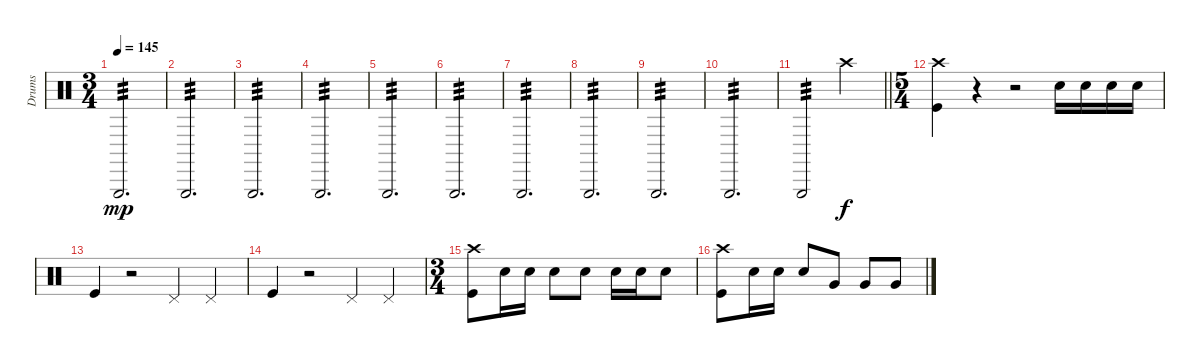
\track ("Drums" "Drums") {instrument percussion}
\staff {score}
\articulation defaults
\ts (3 4)
\tempo 145
\clef neutral
\ks aminor "Triangle (hit)".2{d tp 3 dy mp}
|
"Triangle (hit)".2{d tp 3} |
"Triangle (hit)".2{d tp 3} |
"Triangle (hit)".2{d tp 3} |
"Triangle (hit)".2{d tp 3} |
"Triangle (hit)".2{d tp 3} |
"Triangle (hit)".2{d tp 3} |
"Triangle (hit)".2{d tp 3} |
"Triangle (hit)".2{d tp 3} |
"Triangle (hit)".2{d tp 3} |
\barLineRight lightlight "Triangle (hit)".2{tp 3} "Crash high (hit)".4{dy f}
|
\ts (5 4)
("Crash high (hit)" "Kick (hit)").4 r.4 r.2 "Snare (hit) 2".16 "Snare (hit) 2".16 "Snare (hit) 2".16 "Snare (hit) 2".16 |
"Kick (hit)".4 r.2 "Pedal Hi-Hat (hit)".4 "Pedal Hi-Hat (hit)".4 |
"Kick (hit)".4 r.2 "Pedal Hi-Hat (hit)".4 "Pedal Hi-Hat (hit)".4 |
\ts (3 4)
("Crash high (hit)" "Kick (hit)").8 "Snare (hit) 2".16 "Snare (hit) 2".16 "Snare (hit) 2".8 "Snare (hit) 2".8 "Snare (hit) 2".16 "Snare (hit) 2".16 "Snare (hit) 2".8 |
("Crash high (hit)" "Kick (hit)").8 "Snare (hit) 2".16 "Snare (hit) 2".16 "Snare (hit) 2".8 "Very Low Tom (hit)".8 "Very Low Tom (hit)".8 "Very Low Tom (hit)".8
